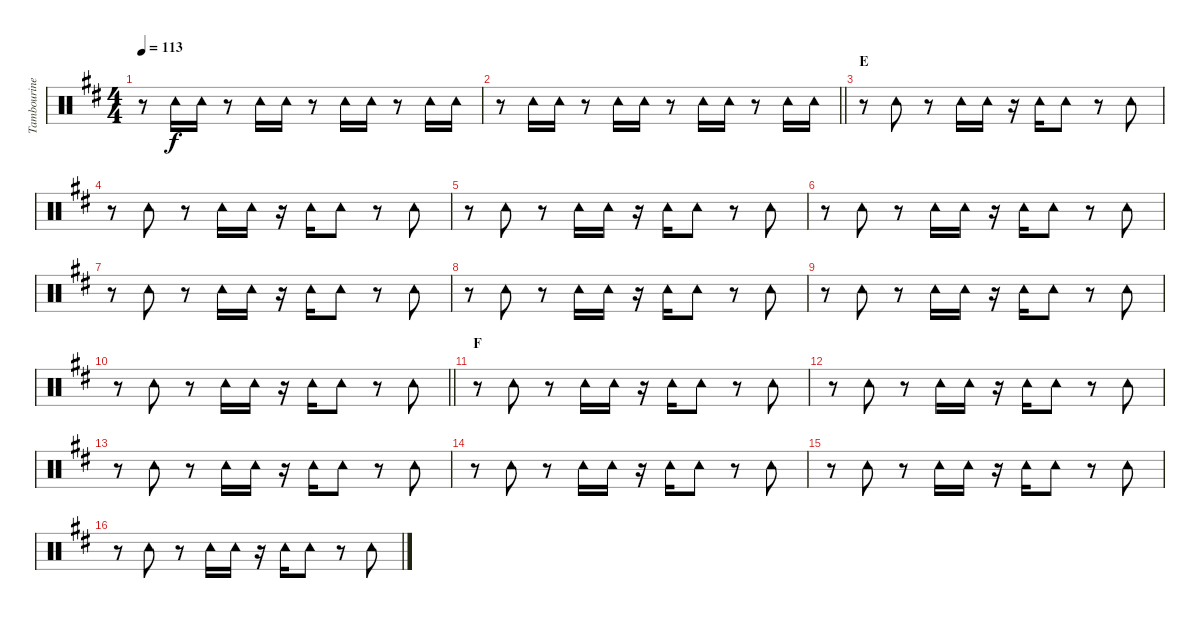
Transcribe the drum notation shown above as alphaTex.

\track ("Tambourine" "Tambourine") {instrument percussion}
\staff {score}
\articulation defaults
\ts (4 4)
\tempo 113
\clef neutral
\ks d
r.8{dy f} "Tambourine (hit)".16 "Tambourine (hit)".16 r.8 "Tambourine (hit)".16 "Tambourine (hit)".16 r.8 "Tambourine (hit)".16 "Tambourine (hit)".16 r.8 "Tambourine (hit)".16 "Tambourine (hit)".16 |
\barLineRight lightlight
r.8 "Tambourine (hit)".16 "Tambourine (hit)".16 r.8 "Tambourine (hit)".16 "Tambourine (hit)".16 r.8 "Tambourine (hit)".16 "Tambourine (hit)".16 r.8 "Tambourine (hit)".16 "Tambourine (hit)".16 |
\section ("" "E")
r.8 "Tambourine (hit)".8 r.8 "Tambourine (hit)".16 "Tambourine (hit)".16 r.16 "Tambourine (hit)".16 "Tambourine (hit)".8 r.8 "Tambourine (hit)".8 |
r.8 "Tambourine (hit)".8 r.8 "Tambourine (hit)".16 "Tambourine (hit)".16 r.16 "Tambourine (hit)".16 "Tambourine (hit)".8 r.8 "Tambourine (hit)".8 |
r.8 "Tambourine (hit)".8 r.8 "Tambourine (hit)".16 "Tambourine (hit)".16 r.16 "Tambourine (hit)".16 "Tambourine (hit)".8 r.8 "Tambourine (hit)".8 |
r.8 "Tambourine (hit)".8 r.8 "Tambourine (hit)".16 "Tambourine (hit)".16 r.16 "Tambourine (hit)".16 "Tambourine (hit)".8 r.8 "Tambourine (hit)".8 |
r.8 "Tambourine (hit)".8 r.8 "Tambourine (hit)".16 "Tambourine (hit)".16 r.16 "Tambourine (hit)".16 "Tambourine (hit)".8 r.8 "Tambourine (hit)".8 |
r.8 "Tambourine (hit)".8 r.8 "Tambourine (hit)".16 "Tambourine (hit)".16 r.16 "Tambourine (hit)".16 "Tambourine (hit)".8 r.8 "Tambourine (hit)".8 |
r.8 "Tambourine (hit)".8 r.8 "Tambourine (hit)".16 "Tambourine (hit)".16 r.16 "Tambourine (hit)".16 "Tambourine (hit)".8 r.8 "Tambourine (hit)".8 |
\barLineRight lightlight
r.8 "Tambourine (hit)".8 r.8 "Tambourine (hit)".16 "Tambourine (hit)".16 r.16 "Tambourine (hit)".16 "Tambourine (hit)".8 r.8 "Tambourine (hit)".8 |
\section ("" "F")
r.8 "Tambourine (hit)".8 r.8 "Tambourine (hit)".16 "Tambourine (hit)".16 r.16 "Tambourine (hit)".16 "Tambourine (hit)".8 r.8 "Tambourine (hit)".8 |
r.8 "Tambourine (hit)".8 r.8 "Tambourine (hit)".16 "Tambourine (hit)".16 r.16 "Tambourine (hit)".16 "Tambourine (hit)".8 r.8 "Tambourine (hit)".8 |
r.8 "Tambourine (hit)".8 r.8 "Tambourine (hit)".16 "Tambourine (hit)".16 r.16 "Tambourine (hit)".16 "Tambourine (hit)".8 r.8 "Tambourine (hit)".8 |
r.8 "Tambourine (hit)".8 r.8 "Tambourine (hit)".16 "Tambourine (hit)".16 r.16 "Tambourine (hit)".16 "Tambourine (hit)".8 r.8 "Tambourine (hit)".8 |
r.8 "Tambourine (hit)".8 r.8 "Tambourine (hit)".16 "Tambourine (hit)".16 r.16 "Tambourine (hit)".16 "Tambourine (hit)".8 r.8 "Tambourine (hit)".8 |
r.8 "Tambourine (hit)".8 r.8 "Tambourine (hit)".16 "Tambourine (hit)".16 r.16 "Tambourine (hit)".16 "Tambourine (hit)".8 r.8 "Tambourine (hit)".8
